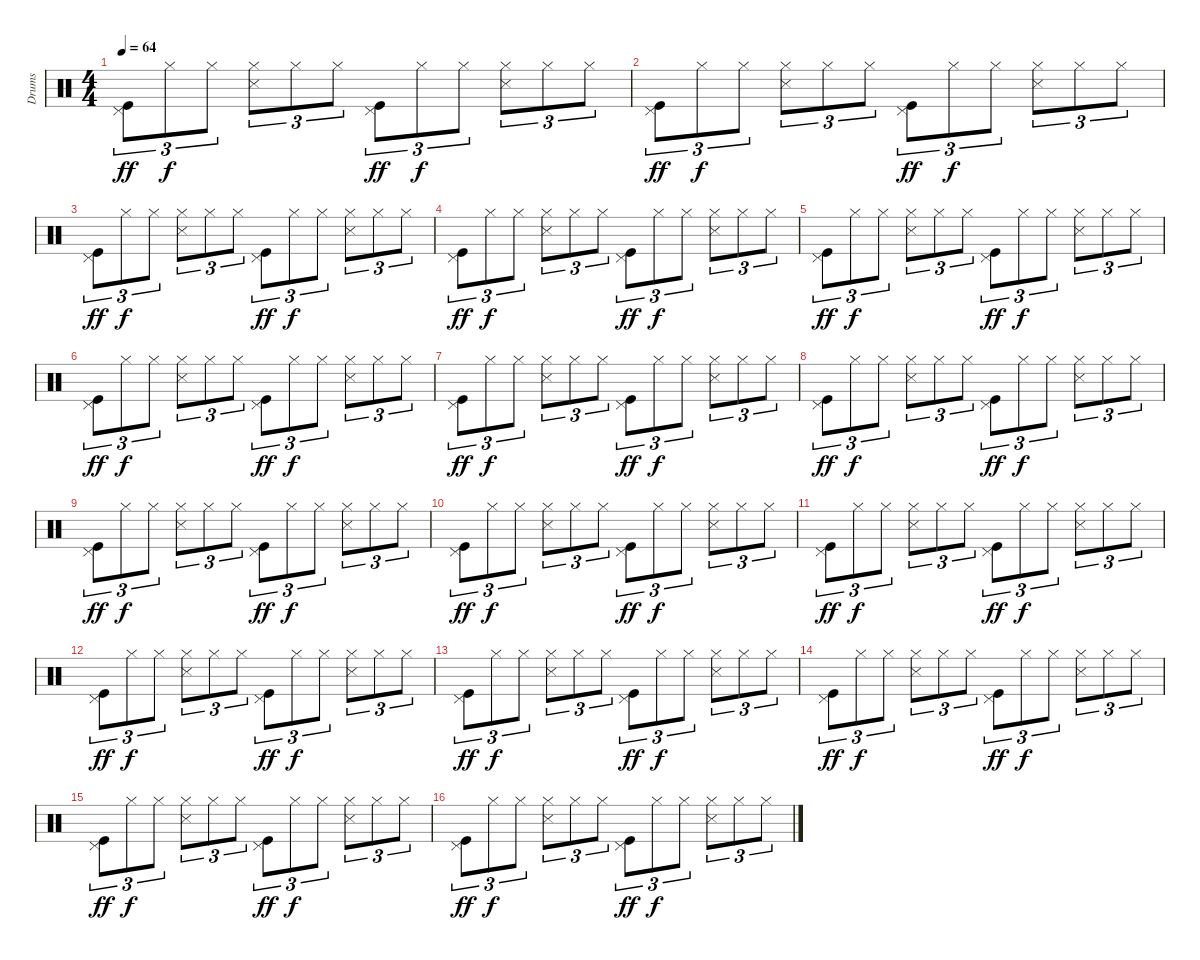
\track ("Drums" "Drums") {instrument percussion}
\staff {score}
\articulation defaults
\ts (4 4)
\tempo 64
\clef neutral
\ks c
("Pedal Hi-Hat (hit)" "Kick (hit)").8{tu (3 2) dy ff} "Hi-Hat (closed)".8{tu (3 2) dy f} "Hi-Hat (closed)".8{tu (3 2)} ("Hi-Hat (closed)" "Snare (side stick) 3").8{tu (3 2)} "Hi-Hat (closed)".8{tu (3 2)} "Hi-Hat (closed)".8{tu (3 2)} ("Pedal Hi-Hat (hit)" "Kick (hit)").8{tu (3 2) dy ff} "Hi-Hat (closed)".8{tu (3 2) dy f} "Hi-Hat (closed)".8{tu (3 2)} ("Hi-Hat (closed)" "Snare (side stick) 3").8{tu (3 2)} "Hi-Hat (closed)".8{tu (3 2)} "Hi-Hat (closed)".8{tu (3 2)} |
("Pedal Hi-Hat (hit)" "Kick (hit)").8{tu (3 2) dy ff} "Hi-Hat (closed)".8{tu (3 2) dy f} "Hi-Hat (closed)".8{tu (3 2)} ("Hi-Hat (closed)" "Snare (side stick) 3").8{tu (3 2)} "Hi-Hat (closed)".8{tu (3 2)} "Hi-Hat (closed)".8{tu (3 2)} ("Pedal Hi-Hat (hit)" "Kick (hit)").8{tu (3 2) dy ff} "Hi-Hat (closed)".8{tu (3 2) dy f} "Hi-Hat (closed)".8{tu (3 2)} ("Hi-Hat (closed)" "Snare (side stick) 3").8{tu (3 2)} "Hi-Hat (closed)".8{tu (3 2)} "Hi-Hat (closed)".8{tu (3 2)} |
("Pedal Hi-Hat (hit)" "Kick (hit)").8{tu (3 2) dy ff} "Hi-Hat (closed)".8{tu (3 2) dy f} "Hi-Hat (closed)".8{tu (3 2)} ("Hi-Hat (closed)" "Snare (side stick) 3").8{tu (3 2)} "Hi-Hat (closed)".8{tu (3 2)} "Hi-Hat (closed)".8{tu (3 2)} ("Pedal Hi-Hat (hit)" "Kick (hit)").8{tu (3 2) dy ff} "Hi-Hat (closed)".8{tu (3 2) dy f} "Hi-Hat (closed)".8{tu (3 2)} ("Hi-Hat (closed)" "Snare (side stick) 3").8{tu (3 2)} "Hi-Hat (closed)".8{tu (3 2)} "Hi-Hat (closed)".8{tu (3 2)} |
("Pedal Hi-Hat (hit)" "Kick (hit)").8{tu (3 2) dy ff} "Hi-Hat (closed)".8{tu (3 2) dy f} "Hi-Hat (closed)".8{tu (3 2)} ("Hi-Hat (closed)" "Snare (side stick) 3").8{tu (3 2)} "Hi-Hat (closed)".8{tu (3 2)} "Hi-Hat (closed)".8{tu (3 2)} ("Pedal Hi-Hat (hit)" "Kick (hit)").8{tu (3 2) dy ff} "Hi-Hat (closed)".8{tu (3 2) dy f} "Hi-Hat (closed)".8{tu (3 2)} ("Hi-Hat (closed)" "Snare (side stick) 3").8{tu (3 2)} "Hi-Hat (closed)".8{tu (3 2)} "Hi-Hat (closed)".8{tu (3 2)} |
("Pedal Hi-Hat (hit)" "Kick (hit)").8{tu (3 2) dy ff volume 5} "Hi-Hat (closed)".8{tu (3 2) dy f} "Hi-Hat (closed)".8{tu (3 2)} ("Hi-Hat (closed)" "Snare (side stick) 3").8{tu (3 2)} "Hi-Hat (closed)".8{tu (3 2)} "Hi-Hat (closed)".8{tu (3 2)} ("Pedal Hi-Hat (hit)" "Kick (hit)").8{tu (3 2) dy ff} "Hi-Hat (closed)".8{tu (3 2) dy f} "Hi-Hat (closed)".8{tu (3 2)} ("Hi-Hat (closed)" "Snare (side stick) 3").8{tu (3 2)} "Hi-Hat (closed)".8{tu (3 2)} "Hi-Hat (closed)".8{tu (3 2)} |
("Pedal Hi-Hat (hit)" "Kick (hit)").8{tu (3 2) dy ff} "Hi-Hat (closed)".8{tu (3 2) dy f} "Hi-Hat (closed)".8{tu (3 2)} ("Hi-Hat (closed)" "Snare (side stick) 3").8{tu (3 2)} "Hi-Hat (closed)".8{tu (3 2)} "Hi-Hat (closed)".8{tu (3 2)} ("Pedal Hi-Hat (hit)" "Kick (hit)").8{tu (3 2) dy ff} "Hi-Hat (closed)".8{tu (3 2) dy f} "Hi-Hat (closed)".8{tu (3 2)} ("Hi-Hat (closed)" "Snare (side stick) 3").8{tu (3 2)} "Hi-Hat (closed)".8{tu (3 2)} "Hi-Hat (closed)".8{tu (3 2)} |
("Pedal Hi-Hat (hit)" "Kick (hit)").8{tu (3 2) dy ff} "Hi-Hat (closed)".8{tu (3 2) dy f} "Hi-Hat (closed)".8{tu (3 2)} ("Hi-Hat (closed)" "Snare (side stick) 3").8{tu (3 2)} "Hi-Hat (closed)".8{tu (3 2)} "Hi-Hat (closed)".8{tu (3 2)} ("Pedal Hi-Hat (hit)" "Kick (hit)").8{tu (3 2) dy ff} "Hi-Hat (closed)".8{tu (3 2) dy f} "Hi-Hat (closed)".8{tu (3 2)} ("Hi-Hat (closed)" "Snare (side stick) 3").8{tu (3 2)} "Hi-Hat (closed)".8{tu (3 2)} "Hi-Hat (closed)".8{tu (3 2)} |
("Pedal Hi-Hat (hit)" "Kick (hit)").8{tu (3 2) dy ff} "Hi-Hat (closed)".8{tu (3 2) dy f} "Hi-Hat (closed)".8{tu (3 2)} ("Hi-Hat (closed)" "Snare (side stick) 3").8{tu (3 2)} "Hi-Hat (closed)".8{tu (3 2)} "Hi-Hat (closed)".8{tu (3 2)} ("Pedal Hi-Hat (hit)" "Kick (hit)").8{tu (3 2) dy ff} "Hi-Hat (closed)".8{tu (3 2) dy f} "Hi-Hat (closed)".8{tu (3 2)} ("Hi-Hat (closed)" "Snare (side stick) 3").8{tu (3 2)} "Hi-Hat (closed)".8{tu (3 2)} "Hi-Hat (closed)".8{tu (3 2)} |
("Pedal Hi-Hat (hit)" "Kick (hit)").8{tu (3 2) dy ff} "Hi-Hat (closed)".8{tu (3 2) dy f} "Hi-Hat (closed)".8{tu (3 2)} ("Hi-Hat (closed)" "Snare (side stick) 3").8{tu (3 2)} "Hi-Hat (closed)".8{tu (3 2)} "Hi-Hat (closed)".8{tu (3 2)} ("Pedal Hi-Hat (hit)" "Kick (hit)").8{tu (3 2) dy ff} "Hi-Hat (closed)".8{tu (3 2) dy f} "Hi-Hat (closed)".8{tu (3 2)} ("Hi-Hat (closed)" "Snare (side stick) 3").8{tu (3 2)} "Hi-Hat (closed)".8{tu (3 2)} "Hi-Hat (closed)".8{tu (3 2)} |
("Pedal Hi-Hat (hit)" "Kick (hit)").8{tu (3 2) dy ff} "Hi-Hat (closed)".8{tu (3 2) dy f} "Hi-Hat (closed)".8{tu (3 2)} ("Hi-Hat (closed)" "Snare (side stick) 3").8{tu (3 2)} "Hi-Hat (closed)".8{tu (3 2)} "Hi-Hat (closed)".8{tu (3 2)} ("Pedal Hi-Hat (hit)" "Kick (hit)").8{tu (3 2) dy ff} "Hi-Hat (closed)".8{tu (3 2) dy f} "Hi-Hat (closed)".8{tu (3 2)} ("Hi-Hat (closed)" "Snare (side stick) 3").8{tu (3 2)} "Hi-Hat (closed)".8{tu (3 2)} "Hi-Hat (closed)".8{tu (3 2)} |
("Pedal Hi-Hat (hit)" "Kick (hit)").8{tu (3 2) dy ff} "Hi-Hat (closed)".8{tu (3 2) dy f} "Hi-Hat (closed)".8{tu (3 2)} ("Hi-Hat (closed)" "Snare (side stick) 3").8{tu (3 2)} "Hi-Hat (closed)".8{tu (3 2)} "Hi-Hat (closed)".8{tu (3 2)} ("Pedal Hi-Hat (hit)" "Kick (hit)").8{tu (3 2) dy ff} "Hi-Hat (closed)".8{tu (3 2) dy f} "Hi-Hat (closed)".8{tu (3 2)} ("Hi-Hat (closed)" "Snare (side stick) 3").8{tu (3 2)} "Hi-Hat (closed)".8{tu (3 2)} "Hi-Hat (closed)".8{tu (3 2)} |
("Pedal Hi-Hat (hit)" "Kick (hit)").8{tu (3 2) dy ff} "Hi-Hat (closed)".8{tu (3 2) dy f} "Hi-Hat (closed)".8{tu (3 2)} ("Hi-Hat (closed)" "Snare (side stick) 3").8{tu (3 2)} "Hi-Hat (closed)".8{tu (3 2)} "Hi-Hat (closed)".8{tu (3 2)} ("Pedal Hi-Hat (hit)" "Kick (hit)").8{tu (3 2) dy ff} "Hi-Hat (closed)".8{tu (3 2) dy f} "Hi-Hat (closed)".8{tu (3 2)} ("Hi-Hat (closed)" "Snare (side stick) 3").8{tu (3 2)} "Hi-Hat (closed)".8{tu (3 2)} "Hi-Hat (closed)".8{tu (3 2)} |
("Pedal Hi-Hat (hit)" "Kick (hit)").8{tu (3 2) dy ff} "Hi-Hat (closed)".8{tu (3 2) dy f} "Hi-Hat (closed)".8{tu (3 2)} ("Hi-Hat (closed)" "Snare (side stick) 3").8{tu (3 2)} "Hi-Hat (closed)".8{tu (3 2)} "Hi-Hat (closed)".8{tu (3 2)} ("Pedal Hi-Hat (hit)" "Kick (hit)").8{tu (3 2) dy ff} "Hi-Hat (closed)".8{tu (3 2) dy f} "Hi-Hat (closed)".8{tu (3 2)} ("Hi-Hat (closed)" "Snare (side stick) 3").8{tu (3 2)} "Hi-Hat (closed)".8{tu (3 2)} "Hi-Hat (closed)".8{tu (3 2)} |
("Pedal Hi-Hat (hit)" "Kick (hit)").8{tu (3 2) dy ff} "Hi-Hat (closed)".8{tu (3 2) dy f} "Hi-Hat (closed)".8{tu (3 2)} ("Hi-Hat (closed)" "Snare (side stick) 3").8{tu (3 2)} "Hi-Hat (closed)".8{tu (3 2)} "Hi-Hat (closed)".8{tu (3 2)} ("Pedal Hi-Hat (hit)" "Kick (hit)").8{tu (3 2) dy ff} "Hi-Hat (closed)".8{tu (3 2) dy f} "Hi-Hat (closed)".8{tu (3 2)} ("Hi-Hat (closed)" "Snare (side stick) 3").8{tu (3 2)} "Hi-Hat (closed)".8{tu (3 2)} "Hi-Hat (closed)".8{tu (3 2)} |
("Pedal Hi-Hat (hit)" "Kick (hit)").8{tu (3 2) dy ff} "Hi-Hat (closed)".8{tu (3 2) dy f} "Hi-Hat (closed)".8{tu (3 2)} ("Hi-Hat (closed)" "Snare (side stick) 3").8{tu (3 2)} "Hi-Hat (closed)".8{tu (3 2)} "Hi-Hat (closed)".8{tu (3 2)} ("Pedal Hi-Hat (hit)" "Kick (hit)").8{tu (3 2) dy ff} "Hi-Hat (closed)".8{tu (3 2) dy f} "Hi-Hat (closed)".8{tu (3 2)} ("Hi-Hat (closed)" "Snare (side stick) 3").8{tu (3 2)} "Hi-Hat (closed)".8{tu (3 2)} "Hi-Hat (closed)".8{tu (3 2)} |
("Pedal Hi-Hat (hit)" "Kick (hit)").8{tu (3 2) dy ff} "Hi-Hat (closed)".8{tu (3 2) dy f} "Hi-Hat (closed)".8{tu (3 2)} ("Hi-Hat (closed)" "Snare (side stick) 3").8{tu (3 2)} "Hi-Hat (closed)".8{tu (3 2)} "Hi-Hat (closed)".8{tu (3 2)} ("Pedal Hi-Hat (hit)" "Kick (hit)").8{tu (3 2) dy ff} "Hi-Hat (closed)".8{tu (3 2) dy f} "Hi-Hat (closed)".8{tu (3 2)} ("Hi-Hat (closed)" "Snare (side stick) 3").8{tu (3 2)} "Hi-Hat (closed)".8{tu (3 2)} "Hi-Hat (closed)".8{tu (3 2)}
